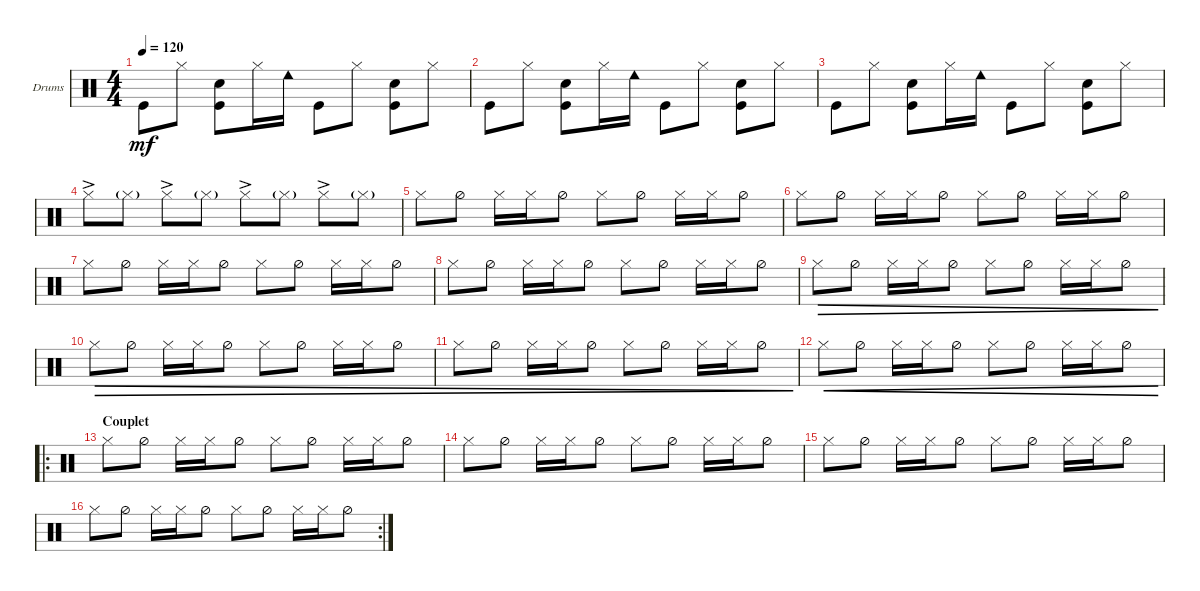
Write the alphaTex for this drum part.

\defaultSystemsLayout 4
\bracketExtendMode groupsimilarinstruments
\firstSystemTrackNameOrientation horizontal
\otherSystemsTrackNameOrientation horizontal
\track ("Drumkit" "Drums") {instrument percussion}
\staff {score}
\articulation defaults
\ts (4 4)
\tempo 120
\clef neutral
\ks c "Kick (hit)".8{dy mf} "Hi-Hat (closed)".8
("Snare (hit) 2" "Kick (hit)").8 "Hi-Hat (closed)".16 "Cowbell low (hit)".16 "Kick (hit)".8 "Hi-Hat (closed)".8 ("Snare (hit) 2" "Kick (hit)").8 "Hi-Hat (closed)".8 |
"Kick (hit)".8 "Hi-Hat (closed)".8 ("Snare (hit) 2" "Kick (hit)").8 "Hi-Hat (closed)".16 "Cowbell low (hit)".16 "Kick (hit)".8 "Hi-Hat (closed)".8 ("Snare (hit) 2" "Kick (hit)").8 "Hi-Hat (closed)".8 |
"Kick (hit)".8 "Hi-Hat (closed)".8 ("Snare (hit) 2" "Kick (hit)").8 "Hi-Hat (closed)".16 "Cowbell low (hit)".16 "Kick (hit)".8 "Hi-Hat (closed)".8 ("Snare (hit) 2" "Kick (hit)").8 "Hi-Hat (closed)".8 |
"Hi-Hat (closed)"{ac}.8 "Hi-Hat (closed)"{g}.8 "Hi-Hat (closed)"{ac}.8 "Hi-Hat (closed)"{g}.8 "Hi-Hat (closed)"{ac}.8 "Hi-Hat (closed)"{g}.8 "Hi-Hat (closed)"{ac}.8 "Hi-Hat (closed)"{g}.8 |
"Hi-Hat (closed)".8 "Hi-Hat (half)".8 "Hi-Hat (closed)".16 "Hi-Hat (closed)".16 "Hi-Hat (half)".8 "Hi-Hat (closed)".8 "Hi-Hat (half)".8 "Hi-Hat (closed)".16 "Hi-Hat (closed)".16 "Hi-Hat (half)".8 |
"Hi-Hat (closed)".8 "Hi-Hat (half)".8 "Hi-Hat (closed)".16 "Hi-Hat (closed)".16 "Hi-Hat (half)".8 "Hi-Hat (closed)".8 "Hi-Hat (half)".8 "Hi-Hat (closed)".16 "Hi-Hat (closed)".16 "Hi-Hat (half)".8 |
"Hi-Hat (closed)".8 "Hi-Hat (half)".8 "Hi-Hat (closed)".16 "Hi-Hat (closed)".16 "Hi-Hat (half)".8 "Hi-Hat (closed)".8 "Hi-Hat (half)".8 "Hi-Hat (closed)".16 "Hi-Hat (closed)".16 "Hi-Hat (half)".8 |
"Hi-Hat (closed)".8 "Hi-Hat (half)".8 "Hi-Hat (closed)".16 "Hi-Hat (closed)".16 "Hi-Hat (half)".8 "Hi-Hat (closed)".8 "Hi-Hat (half)".8 "Hi-Hat (closed)".16 "Hi-Hat (closed)".16 "Hi-Hat (half)".8 |
"Hi-Hat (closed)".8{dec} "Hi-Hat (half)".8{dec} "Hi-Hat (closed)".16{dec} "Hi-Hat (closed)".16{dec} "Hi-Hat (half)".8{dec} "Hi-Hat (closed)".8{dec} "Hi-Hat (half)".8{dec} "Hi-Hat (closed)".16{dec} "Hi-Hat (closed)".16{dec} "Hi-Hat (half)".8{dec} |
"Hi-Hat (closed)".8{dec} "Hi-Hat (half)".8{dec} "Hi-Hat (closed)".16{dec} "Hi-Hat (closed)".16{dec} "Hi-Hat (half)".8{dec} "Hi-Hat (closed)".8{dec} "Hi-Hat (half)".8{dec} "Hi-Hat (closed)".16{dec} "Hi-Hat (closed)".16{dec} "Hi-Hat (half)".8{dec} |
"Hi-Hat (closed)".8{dec} "Hi-Hat (half)".8{dec} "Hi-Hat (closed)".16{dec} "Hi-Hat (closed)".16{dec} "Hi-Hat (half)".8{dec} "Hi-Hat (closed)".8{dec} "Hi-Hat (half)".8{dec} "Hi-Hat (closed)".16{dec} "Hi-Hat (closed)".16{dec} "Hi-Hat (half)".8{dec} |
"Hi-Hat (closed)".8{cre} "Hi-Hat (half)".8{cre} "Hi-Hat (closed)".16{cre} "Hi-Hat (closed)".16{cre} "Hi-Hat (half)".8{cre} "Hi-Hat (closed)".8{cre} "Hi-Hat (half)".8{cre} "Hi-Hat (closed)".16{cre} "Hi-Hat (closed)".16{cre} "Hi-Hat (half)".8{cre} |
\ro
\section ("" "Couplet")
"Hi-Hat (closed)".8 "Hi-Hat (half)".8 "Hi-Hat (closed)".16 "Hi-Hat (closed)".16 "Hi-Hat (half)".8 "Hi-Hat (closed)".8 "Hi-Hat (half)".8 "Hi-Hat (closed)".16 "Hi-Hat (closed)".16 "Hi-Hat (half)".8 |
"Hi-Hat (closed)".8 "Hi-Hat (half)".8 "Hi-Hat (closed)".16 "Hi-Hat (closed)".16 "Hi-Hat (half)".8 "Hi-Hat (closed)".8 "Hi-Hat (half)".8 "Hi-Hat (closed)".16 "Hi-Hat (closed)".16 "Hi-Hat (half)".8 |
"Hi-Hat (closed)".8 "Hi-Hat (half)".8 "Hi-Hat (closed)".16 "Hi-Hat (closed)".16 "Hi-Hat (half)".8 "Hi-Hat (closed)".8 "Hi-Hat (half)".8 "Hi-Hat (closed)".16 "Hi-Hat (closed)".16 "Hi-Hat (half)".8 |
\rc 2 "Hi-Hat (closed)".8 "Hi-Hat (half)".8 "Hi-Hat (closed)".16 "Hi-Hat (closed)".16 "Hi-Hat (half)".8 "Hi-Hat (closed)".8 "Hi-Hat (half)".8 "Hi-Hat (closed)".16 "Hi-Hat (closed)".16 "Hi-Hat (half)".8
